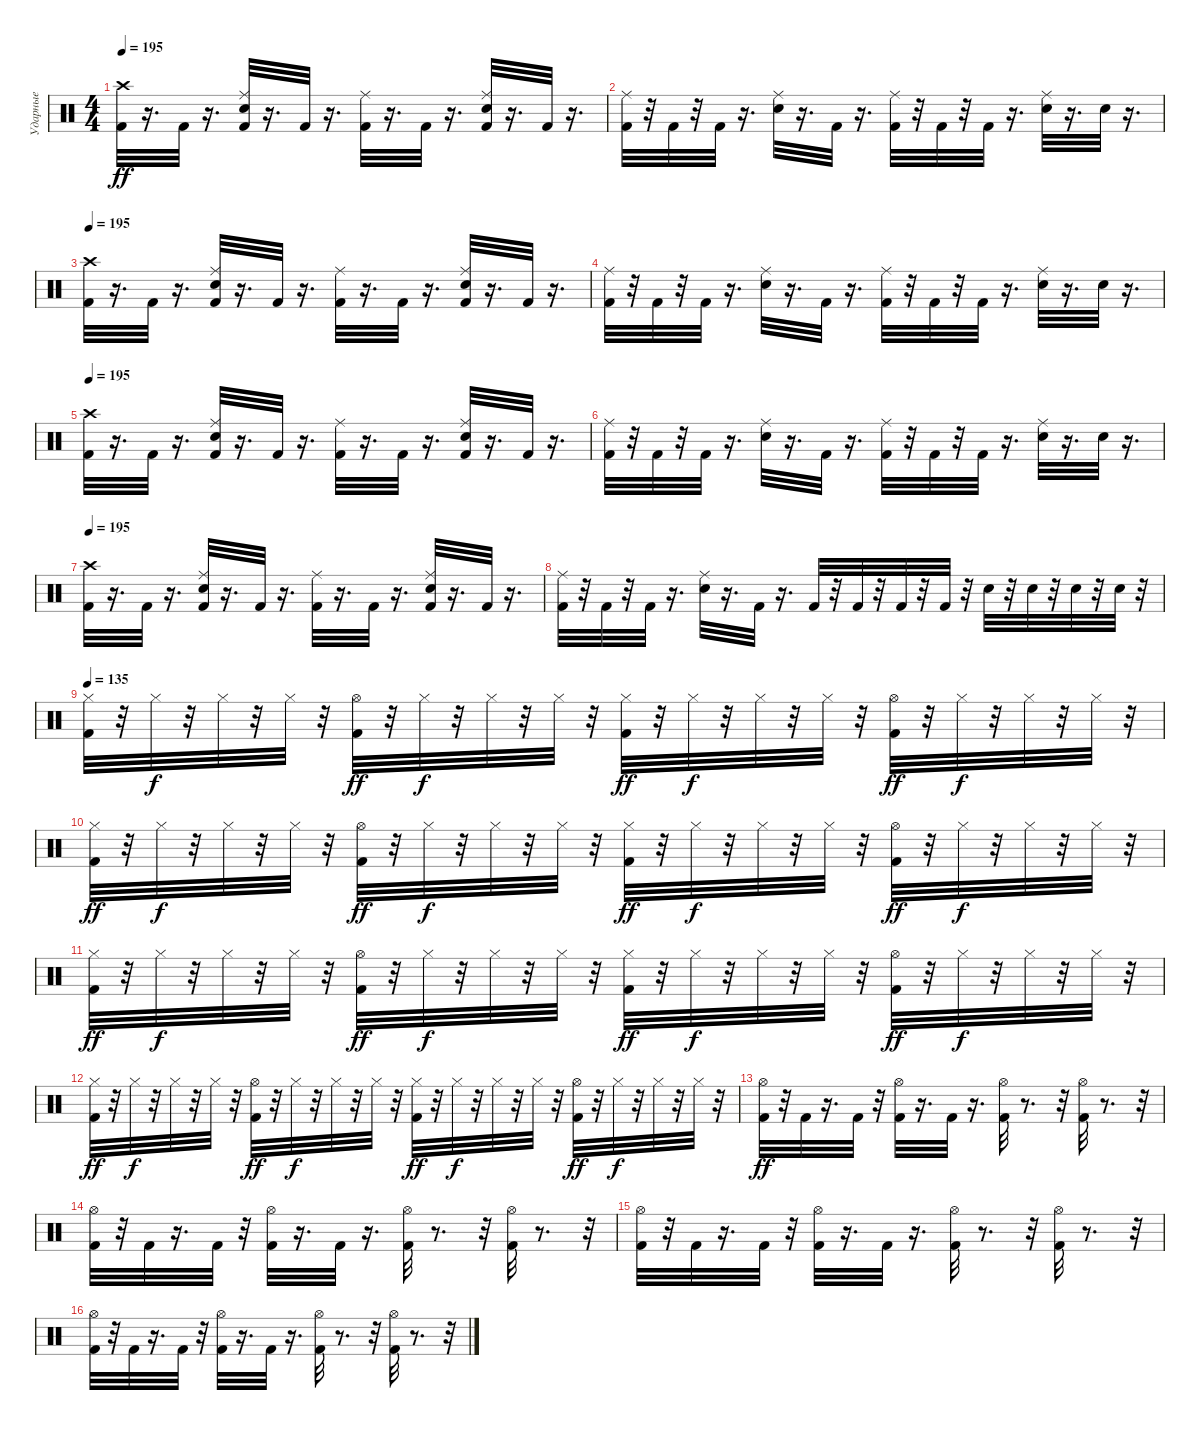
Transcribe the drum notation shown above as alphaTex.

\track ("Ударные" "Ударные") {instrument percussion}
\staff {score}
\articulation defaults
\ts (4 4)
\tempo 195
\clef neutral
\ks c
("Crash high (hit)" "Kick (hit) 2").32{dy ff} r.16{d} "Kick (hit) 2".32 r.16{d} ("Ride (middle)" "Kick (hit) 2" "Electric Snare (hit)").32 r.16{d} "Kick (hit) 2".32 r.16{d} ("Ride (middle)" "Kick (hit) 2").32 r.16{d} "Kick (hit) 2".32 r.16{d} ("Ride (middle)" "Kick (hit) 2" "Electric Snare (hit)").32 r.16{d} "Kick (hit) 2".32 r.16{d} |
("Ride (middle)" "Kick (hit) 2").32 r.32 "Kick (hit) 2".32 r.32 "Kick (hit) 2".32 r.16{d} ("Ride (middle)" "Electric Snare (hit)").32 r.16{d} "Kick (hit) 2".32 r.16{d} ("Kick (hit) 2" "Ride (middle)").32 r.32 "Kick (hit) 2".32 r.32 "Kick (hit) 2".32 r.16{d} ("Electric Snare (hit)" "Ride (middle)").32 r.16{d} "Electric Snare (hit)".32 r.16{d} |
\tempo 195
("Crash high (hit)" "Kick (hit) 2").32 r.16{d} "Kick (hit) 2".32 r.16{d} ("Ride (middle)" "Kick (hit) 2" "Electric Snare (hit)").32 r.16{d} "Kick (hit) 2".32 r.16{d} ("Ride (middle)" "Kick (hit) 2").32 r.16{d} "Kick (hit) 2".32 r.16{d} ("Ride (middle)" "Kick (hit) 2" "Electric Snare (hit)").32 r.16{d} "Kick (hit) 2".32 r.16{d} |
("Ride (middle)" "Kick (hit) 2").32 r.32 "Kick (hit) 2".32 r.32 "Kick (hit) 2".32 r.16{d} ("Ride (middle)" "Electric Snare (hit)").32 r.16{d} "Kick (hit) 2".32 r.16{d} ("Kick (hit) 2" "Ride (middle)").32 r.32 "Kick (hit) 2".32 r.32 "Kick (hit) 2".32 r.16{d} ("Electric Snare (hit)" "Ride (middle)").32 r.16{d} "Electric Snare (hit)".32 r.16{d} |
\tempo 195
("Crash high (hit)" "Kick (hit) 2").32 r.16{d} "Kick (hit) 2".32 r.16{d} ("Ride (middle)" "Kick (hit) 2" "Electric Snare (hit)").32 r.16{d} "Kick (hit) 2".32 r.16{d} ("Ride (middle)" "Kick (hit) 2").32 r.16{d} "Kick (hit) 2".32 r.16{d} ("Ride (middle)" "Kick (hit) 2" "Electric Snare (hit)").32 r.16{d} "Kick (hit) 2".32 r.16{d} |
("Ride (middle)" "Kick (hit) 2").32 r.32 "Kick (hit) 2".32 r.32 "Kick (hit) 2".32 r.16{d} ("Ride (middle)" "Electric Snare (hit)").32 r.16{d} "Kick (hit) 2".32 r.16{d} ("Kick (hit) 2" "Ride (middle)").32 r.32 "Kick (hit) 2".32 r.32 "Kick (hit) 2".32 r.16{d} ("Electric Snare (hit)" "Ride (middle)").32 r.16{d} "Electric Snare (hit)".32 r.16{d} |
\tempo 195
("Crash high (hit)" "Kick (hit) 2").32 r.16{d} "Kick (hit) 2".32 r.16{d} ("Ride (middle)" "Kick (hit) 2" "Electric Snare (hit)").32 r.16{d} "Kick (hit) 2".32 r.16{d} ("Ride (middle)" "Kick (hit) 2").32 r.16{d} "Kick (hit) 2".32 r.16{d} ("Ride (middle)" "Kick (hit) 2" "Electric Snare (hit)").32 r.16{d} "Kick (hit) 2".32 r.16{d} |
("Ride (middle)" "Kick (hit) 2").32 r.32 "Kick (hit) 2".32 r.32 "Kick (hit) 2".32 r.16{d} ("Ride (middle)" "Electric Snare (hit)").32 r.16{d} "Kick (hit) 2".32 r.16{d} "Kick (hit) 2".32 r.32 "Kick (hit) 2".32 r.32 "Kick (hit) 2".32 r.32 "Kick (hit) 2".32 r.32 "Electric Snare (hit)".32 r.32 "Electric Snare (hit)".32 r.32 "Electric Snare (hit)".32 r.32 "Electric Snare (hit)".32 r.32 |
\tempo 135
("Hi-Hat (closed)" "Kick (hit) 2").32 r.32 "Hi-Hat (closed)".32{dy f} r.32 "Hi-Hat (closed)".32 r.32 "Hi-Hat (closed)".32 r.32 ("Hi-Hat (open)" "Kick (hit) 2").32{dy ff} r.32 "Hi-Hat (closed)".32{dy f} r.32 "Hi-Hat (closed)".32 r.32 "Hi-Hat (closed)".32 r.32 ("Hi-Hat (closed)" "Kick (hit) 2").32{dy ff} r.32 "Hi-Hat (closed)".32{dy f} r.32 "Hi-Hat (closed)".32 r.32 "Hi-Hat (closed)".32 r.32 ("Hi-Hat (open)" "Kick (hit) 2").32{dy ff} r.32 "Hi-Hat (closed)".32{dy f} r.32 "Hi-Hat (closed)".32 r.32 "Hi-Hat (closed)".32 r.32 |
("Hi-Hat (closed)" "Kick (hit) 2").32{dy ff} r.32 "Hi-Hat (closed)".32{dy f} r.32 "Hi-Hat (closed)".32 r.32 "Hi-Hat (closed)".32 r.32 ("Hi-Hat (open)" "Kick (hit) 2").32{dy ff} r.32 "Hi-Hat (closed)".32{dy f} r.32 "Hi-Hat (closed)".32 r.32 "Hi-Hat (closed)".32 r.32 ("Hi-Hat (closed)" "Kick (hit) 2").32{dy ff} r.32 "Hi-Hat (closed)".32{dy f} r.32 "Hi-Hat (closed)".32 r.32 "Hi-Hat (closed)".32 r.32 ("Hi-Hat (open)" "Kick (hit) 2").32{dy ff} r.32 "Hi-Hat (closed)".32{dy f} r.32 "Hi-Hat (closed)".32 r.32 "Hi-Hat (closed)".32 r.32 |
("Hi-Hat (closed)" "Kick (hit) 2").32{dy ff} r.32 "Hi-Hat (closed)".32{dy f} r.32 "Hi-Hat (closed)".32 r.32 "Hi-Hat (closed)".32 r.32 ("Hi-Hat (open)" "Kick (hit) 2").32{dy ff} r.32 "Hi-Hat (closed)".32{dy f} r.32 "Hi-Hat (closed)".32 r.32 "Hi-Hat (closed)".32 r.32 ("Hi-Hat (closed)" "Kick (hit) 2").32{dy ff} r.32 "Hi-Hat (closed)".32{dy f} r.32 "Hi-Hat (closed)".32 r.32 "Hi-Hat (closed)".32 r.32 ("Hi-Hat (open)" "Kick (hit) 2").32{dy ff} r.32 "Hi-Hat (closed)".32{dy f} r.32 "Hi-Hat (closed)".32 r.32 "Hi-Hat (closed)".32 r.32 |
("Hi-Hat (closed)" "Kick (hit) 2").32{dy ff} r.32 "Hi-Hat (closed)".32{dy f} r.32 "Hi-Hat (closed)".32 r.32 "Hi-Hat (closed)".32 r.32 ("Hi-Hat (open)" "Kick (hit) 2").32{dy ff} r.32 "Hi-Hat (closed)".32{dy f} r.32 "Hi-Hat (closed)".32 r.32 "Hi-Hat (closed)".32 r.32 ("Hi-Hat (closed)" "Kick (hit) 2").32{dy ff} r.32 "Hi-Hat (closed)".32{dy f} r.32 "Hi-Hat (closed)".32 r.32 "Hi-Hat (closed)".32 r.32 ("Hi-Hat (open)" "Kick (hit) 2").32{dy ff} r.32 "Hi-Hat (closed)".32{dy f} r.32 "Hi-Hat (closed)".32 r.32 "Hi-Hat (closed)".32 r.32 |
("Hi-Hat (open)" "Kick (hit) 2").32{dy ff} r.32 "Kick (hit) 2".32 r.16{d} "Kick (hit) 2".32 r.32 ("Hi-Hat (open)" "Kick (hit) 2").32 r.16{d} "Kick (hit) 2".32 r.16{d} ("Hi-Hat (open)" "Kick (hit) 2").32 r.8{d} r.32 ("Hi-Hat (open)" "Kick (hit) 2").32 r.8{d} r.32 |
("Hi-Hat (open)" "Kick (hit) 2").32 r.32 "Kick (hit) 2".32 r.16{d} "Kick (hit) 2".32 r.32 ("Hi-Hat (open)" "Kick (hit) 2").32 r.16{d} "Kick (hit) 2".32 r.16{d} ("Hi-Hat (open)" "Kick (hit) 2").32 r.8{d} r.32 ("Hi-Hat (open)" "Kick (hit) 2").32 r.8{d} r.32 |
("Hi-Hat (open)" "Kick (hit) 2").32 r.32 "Kick (hit) 2".32 r.16{d} "Kick (hit) 2".32 r.32 ("Hi-Hat (open)" "Kick (hit) 2").32 r.16{d} "Kick (hit) 2".32 r.16{d} ("Hi-Hat (open)" "Kick (hit) 2").32 r.8{d} r.32 ("Hi-Hat (open)" "Kick (hit) 2").32 r.8{d} r.32 |
("Hi-Hat (open)" "Kick (hit) 2").32 r.32 "Kick (hit) 2".32 r.16{d} "Kick (hit) 2".32 r.32 ("Hi-Hat (open)" "Kick (hit) 2").32 r.16{d} "Kick (hit) 2".32 r.16{d} ("Hi-Hat (open)" "Kick (hit) 2").32 r.8{d} r.32 ("Hi-Hat (open)" "Kick (hit) 2").32 r.8{d} r.32
